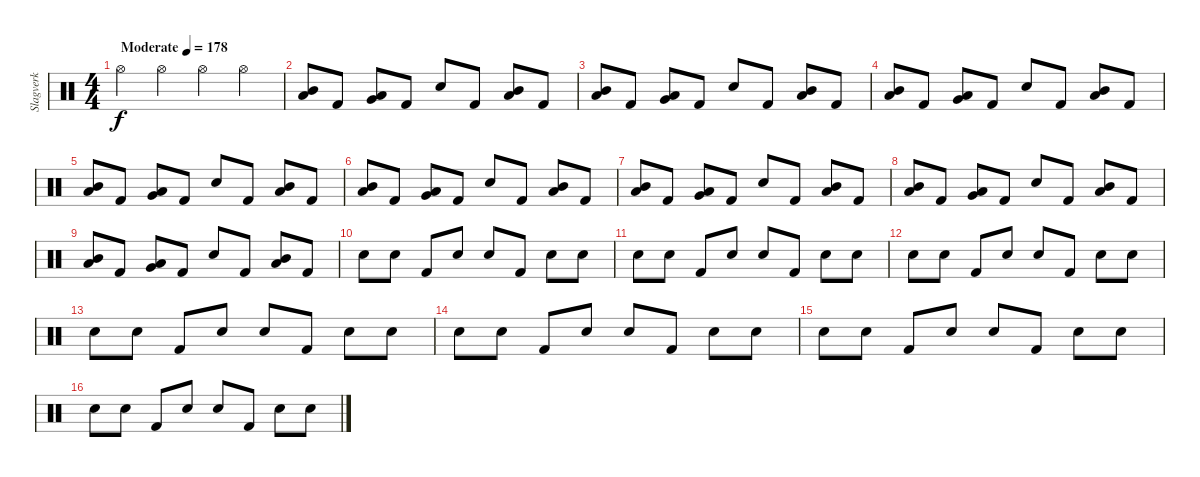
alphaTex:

\track ("Slagverk" "Slagverk") {instrument percussion}
\staff {score}
\articulation defaults
\ts (4 4)
\tempo (178 "Moderate")
\clef neutral
\ks c "Hi-Hat (open)".4{dy f} "Hi-Hat (open)".4 "Hi-Hat (open)".4 "Hi-Hat (open)".4
|
("Mid Tom (hit)" "Low Tom (hit)").8 "Kick (hit) 2".8 ("Low Tom (hit)" "Very Low Tom (hit)").8 "Kick (hit) 2".8 "Electric Snare (hit)".8 "Kick (hit) 2".8 ("Mid Tom (hit)" "Low Tom (hit)").8 "Kick (hit) 2".8 |
("Mid Tom (hit)" "Low Tom (hit)").8 "Kick (hit) 2".8 ("Low Tom (hit)" "Very Low Tom (hit)").8 "Kick (hit) 2".8 "Electric Snare (hit)".8 "Kick (hit) 2".8 ("Mid Tom (hit)" "Low Tom (hit)").8 "Kick (hit) 2".8 |
("Mid Tom (hit)" "Low Tom (hit)").8 "Kick (hit) 2".8 ("Low Tom (hit)" "Very Low Tom (hit)").8 "Kick (hit) 2".8 "Electric Snare (hit)".8 "Kick (hit) 2".8 ("Mid Tom (hit)" "Low Tom (hit)").8 "Kick (hit) 2".8 |
("Mid Tom (hit)" "Low Tom (hit)").8 "Kick (hit) 2".8 ("Low Tom (hit)" "Very Low Tom (hit)").8 "Kick (hit) 2".8 "Electric Snare (hit)".8 "Kick (hit) 2".8 ("Mid Tom (hit)" "Low Tom (hit)").8 "Kick (hit) 2".8 |
("Mid Tom (hit)" "Low Tom (hit)").8 "Kick (hit) 2".8 ("Low Tom (hit)" "Very Low Tom (hit)").8 "Kick (hit) 2".8 "Electric Snare (hit)".8 "Kick (hit) 2".8 ("Mid Tom (hit)" "Low Tom (hit)").8 "Kick (hit) 2".8 |
("Mid Tom (hit)" "Low Tom (hit)").8 "Kick (hit) 2".8 ("Low Tom (hit)" "Very Low Tom (hit)").8 "Kick (hit) 2".8 "Electric Snare (hit)".8 "Kick (hit) 2".8 ("Mid Tom (hit)" "Low Tom (hit)").8 "Kick (hit) 2".8 |
("Mid Tom (hit)" "Low Tom (hit)").8 "Kick (hit) 2".8 ("Low Tom (hit)" "Very Low Tom (hit)").8 "Kick (hit) 2".8 "Electric Snare (hit)".8 "Kick (hit) 2".8 ("Mid Tom (hit)" "Low Tom (hit)").8 "Kick (hit) 2".8 |
("Mid Tom (hit)" "Low Tom (hit)").8 "Kick (hit) 2".8 ("Low Tom (hit)" "Very Low Tom (hit)").8 "Kick (hit) 2".8 "Electric Snare (hit)".8 "Kick (hit) 2".8 ("Mid Tom (hit)" "Low Tom (hit)").8 "Kick (hit) 2".8 |
"Electric Snare (hit)".8 "Electric Snare (hit)".8 "Kick (hit) 2".8 "Electric Snare (hit)".8 "Electric Snare (hit)".8 "Kick (hit) 2".8 "Electric Snare (hit)".8 "Electric Snare (hit)".8 |
"Electric Snare (hit)".8 "Electric Snare (hit)".8 "Kick (hit) 2".8 "Electric Snare (hit)".8 "Electric Snare (hit)".8 "Kick (hit) 2".8 "Electric Snare (hit)".8 "Electric Snare (hit)".8 |
"Electric Snare (hit)".8 "Electric Snare (hit)".8 "Kick (hit) 2".8 "Electric Snare (hit)".8 "Electric Snare (hit)".8 "Kick (hit) 2".8 "Electric Snare (hit)".8 "Electric Snare (hit)".8 |
"Electric Snare (hit)".8 "Electric Snare (hit)".8 "Kick (hit) 2".8 "Electric Snare (hit)".8 "Electric Snare (hit)".8 "Kick (hit) 2".8 "Electric Snare (hit)".8 "Electric Snare (hit)".8 |
"Electric Snare (hit)".8 "Electric Snare (hit)".8 "Kick (hit) 2".8 "Electric Snare (hit)".8 "Electric Snare (hit)".8 "Kick (hit) 2".8 "Electric Snare (hit)".8 "Electric Snare (hit)".8 |
"Electric Snare (hit)".8 "Electric Snare (hit)".8 "Kick (hit) 2".8 "Electric Snare (hit)".8 "Electric Snare (hit)".8 "Kick (hit) 2".8 "Electric Snare (hit)".8 "Electric Snare (hit)".8 |
"Electric Snare (hit)".8 "Electric Snare (hit)".8 "Kick (hit) 2".8 "Electric Snare (hit)".8 "Electric Snare (hit)".8 "Kick (hit) 2".8 "Electric Snare (hit)".8 "Electric Snare (hit)".8
